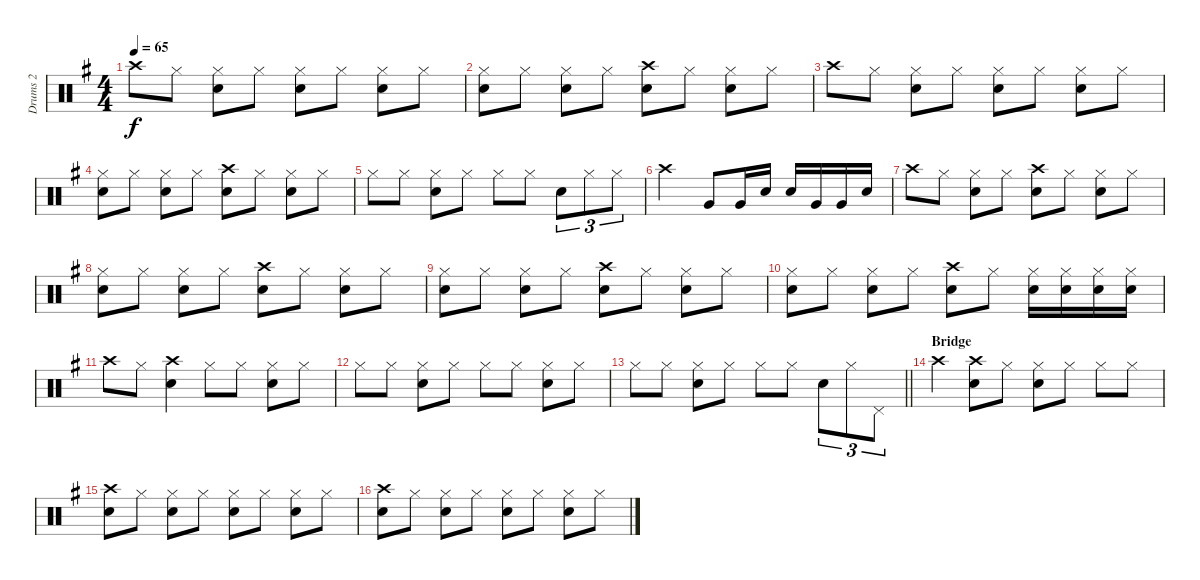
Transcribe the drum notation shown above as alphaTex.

\track ("Drums 2 " "Drums 2 ") {instrument percussion}
\staff {score}
\articulation defaults
\ts (4 4)
\tempo 65
\clef neutral
\ks g "Crash high (hit)".8{dy f} "Hi-Hat (closed)".8
("Hi-Hat (closed)" "Snare (hit) 2").8 "Hi-Hat (closed)".8 ("Hi-Hat (closed)" "Snare (hit) 2").8 "Hi-Hat (closed)".8 ("Snare (hit) 2" "Hi-Hat (closed)").8 "Hi-Hat (closed)".8 |
("Hi-Hat (closed)" "Snare (hit) 2").8 "Hi-Hat (closed)".8 ("Hi-Hat (closed)" "Snare (hit) 2").8 "Hi-Hat (closed)".8 ("Crash high (hit)" "Snare (hit) 2").8 "Hi-Hat (closed)".8 ("Hi-Hat (closed)" "Snare (hit) 2").8 "Hi-Hat (closed)".8 |
"Crash high (hit)".8 "Hi-Hat (closed)".8 ("Hi-Hat (closed)" "Snare (hit) 2").8 "Hi-Hat (closed)".8 ("Hi-Hat (closed)" "Snare (hit) 2").8 "Hi-Hat (closed)".8 ("Snare (hit) 2" "Hi-Hat (closed)").8 "Hi-Hat (closed)".8 |
("Hi-Hat (closed)" "Snare (hit) 2").8 "Hi-Hat (closed)".8 ("Hi-Hat (closed)" "Snare (hit) 2").8 "Hi-Hat (closed)".8 ("Crash high (hit)" "Snare (hit) 2").8 "Hi-Hat (closed)".8 ("Hi-Hat (closed)" "Snare (hit) 2").8 "Hi-Hat (closed)".8 |
"Hi-Hat (closed)".8 "Hi-Hat (closed)".8 ("Hi-Hat (closed)" "Snare (hit) 2").8 "Hi-Hat (closed)".8 "Hi-Hat (closed)".8 "Hi-Hat (closed)".8 "Snare (hit) 2".8{tu (3 2)} "Hi-Hat (closed)".8{tu (3 2)} "Hi-Hat (closed)".8{tu (3 2)} |
"Crash high (hit)".2 "Very Low Tom (hit)".8 "Very Low Tom (hit)".16 "Snare (hit) 2".16 "Snare (hit) 2".16 "Very Low Tom (hit)".16 "Very Low Tom (hit)".16 "Snare (hit) 2".16 |
"Crash high (hit)".8 "Hi-Hat (closed)".8 ("Hi-Hat (closed)" "Snare (hit) 2").8 "Hi-Hat (closed)".8 ("Crash high (hit)" "Snare (hit) 2").8 "Hi-Hat (closed)".8 ("Hi-Hat (closed)" "Snare (hit) 2").8 "Hi-Hat (closed)".8 |
("Hi-Hat (closed)" "Snare (hit) 2").8 "Hi-Hat (closed)".8 ("Hi-Hat (closed)" "Snare (hit) 2").8 "Hi-Hat (closed)".8 ("Crash high (hit)" "Snare (hit) 2").8 "Hi-Hat (closed)".8 ("Hi-Hat (closed)" "Snare (hit) 2").8 "Hi-Hat (closed)".8 |
("Hi-Hat (closed)" "Snare (hit) 2").8 "Hi-Hat (closed)".8 ("Hi-Hat (closed)" "Snare (hit) 2").8 "Hi-Hat (closed)".8 ("Crash high (hit)" "Snare (hit) 2").8 "Hi-Hat (closed)".8 ("Hi-Hat (closed)" "Snare (hit) 2").8 "Hi-Hat (closed)".8 |
("Hi-Hat (closed)" "Snare (hit) 2").8 "Hi-Hat (closed)".8 ("Hi-Hat (closed)" "Snare (hit) 2").8 "Hi-Hat (closed)".8 ("Crash high (hit)" "Snare (hit) 2").8 "Hi-Hat (closed)".8 ("Hi-Hat (closed)" "Snare (hit) 2").16 ("Hi-Hat (closed)" "Snare (hit) 2").16 ("Hi-Hat (closed)" "Snare (hit) 2").16 ("Hi-Hat (closed)" "Snare (hit) 2").16 |
"Crash high (hit)".8 "Hi-Hat (closed)".8 ("Crash high (hit)" "Snare (hit) 2").4 "Hi-Hat (closed)".8 "Hi-Hat (closed)".8 ("Hi-Hat (closed)" "Snare (hit) 2").8 "Hi-Hat (closed)".8 |
"Hi-Hat (closed)".8 "Hi-Hat (closed)".8 ("Hi-Hat (closed)" "Snare (hit) 2").8 "Hi-Hat (closed)".8 "Hi-Hat (closed)".8 "Hi-Hat (closed)".8 ("Snare (hit) 2" "Hi-Hat (closed)").8 "Hi-Hat (closed)".8 |
\barLineRight lightlight "Hi-Hat (closed)".8 "Hi-Hat (closed)".8
("Hi-Hat (closed)" "Snare (hit) 2").8 "Hi-Hat (closed)".8 "Hi-Hat (closed)".8 "Hi-Hat (closed)".8 "Snare (hit) 2".8{tu (3 2)} "Hi-Hat (closed)".8{tu (3 2)} "Pedal Hi-Hat (hit)".8{tu (3 2)} |
\section ("" "Bridge")
"Crash high (hit)".4 ("Snare (hit) 2" "Crash high (hit)").8 "Hi-Hat (closed)".8 ("Hi-Hat (closed)" "Snare (hit) 2").8 "Hi-Hat (closed)".8 "Hi-Hat (closed)".8 "Hi-Hat (closed)".8 |
("Crash high (hit)" "Snare (hit) 2").8 "Hi-Hat (closed)".8 ("Hi-Hat (closed)" "Snare (hit) 2").8 "Hi-Hat (closed)".8 ("Hi-Hat (closed)" "Snare (hit) 2").8 "Hi-Hat (closed)".8 ("Hi-Hat (closed)" "Snare (hit) 2").8 "Hi-Hat (closed)".8 |
("Crash high (hit)" "Snare (hit) 2").8 "Hi-Hat (closed)".8 ("Hi-Hat (closed)" "Snare (hit) 2").8 "Hi-Hat (closed)".8 ("Hi-Hat (closed)" "Snare (hit) 2").8 "Hi-Hat (closed)".8 ("Hi-Hat (closed)" "Snare (hit) 2").8 "Hi-Hat (closed)".8
